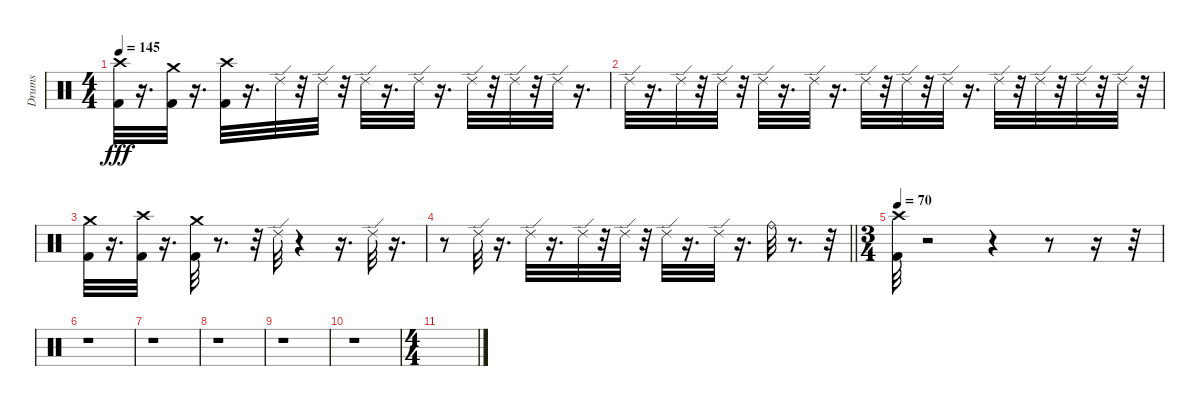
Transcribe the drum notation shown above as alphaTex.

\track ("Drums" "Drums") {instrument percussion}
\staff {score}
\articulation defaults
\ts (4 4)
\tempo 145
\clef neutral
\ks c
("Crash high (hit)" "Kick (hit) 2").32{dy fff} r.16{d} ("Crash medium (hit)" "Kick (hit) 2").32 r.16{d} ("Crash high (hit)" "Kick (hit) 2").32 r.16{d} "Ride (edge) 2".32 r.32 "Ride (edge) 2".32 r.32 "Ride (edge) 2".32 r.16{d} "Ride (edge) 2".32 r.16{d} "Ride (edge) 2".32 r.32 "Ride (edge) 2".32 r.32 "Ride (edge) 2".32 r.16{d} |
"Ride (edge) 2".32 r.16{d} "Ride (edge) 2".32 r.32 "Ride (edge) 2".32 r.32 "Ride (edge) 2".32 r.16{d} "Ride (edge) 2".32 r.16{d} "Ride (edge) 2".32 r.32 "Ride (edge) 2".32 r.32 "Ride (edge) 2".32 r.16{d} "Ride (edge) 2".32 r.32 "Ride (edge) 2".32 r.32 "Ride (edge) 2".32 r.32 "Ride (edge) 2".32 r.32 |
("Crash medium (hit)" "Kick (hit) 2").32 r.16{d} ("Crash high (hit)" "Kick (hit) 2").32 r.16{d} ("Crash medium (hit)" "Kick (hit) 2").32 r.8{d} r.32 "Ride (edge) 2".32 r.4 r.16{d} "Ride (edge) 2".32 r.16{d} |
\barLineRight lightlight
r.8 "Ride (edge) 2".32 r.16{d} "Ride (edge) 2".32 r.16{d} "Ride (edge) 2".32 r.32 "Ride (edge) 2".32 r.32 "Ride (edge) 2".32 r.16{d} "Ride (edge) 2".32 r.16{d} "Ride (bell)".32 r.8{d} r.32 |
\ts (3 4)
\tempo 70
("Crash high (hit)" "Kick (hit) 2").32 r.2 r.4 r.8 r.16 r.32 |
r.1 |
r.1 |
r.1 |
r.1 |
r.1 |
\ts (4 4)
